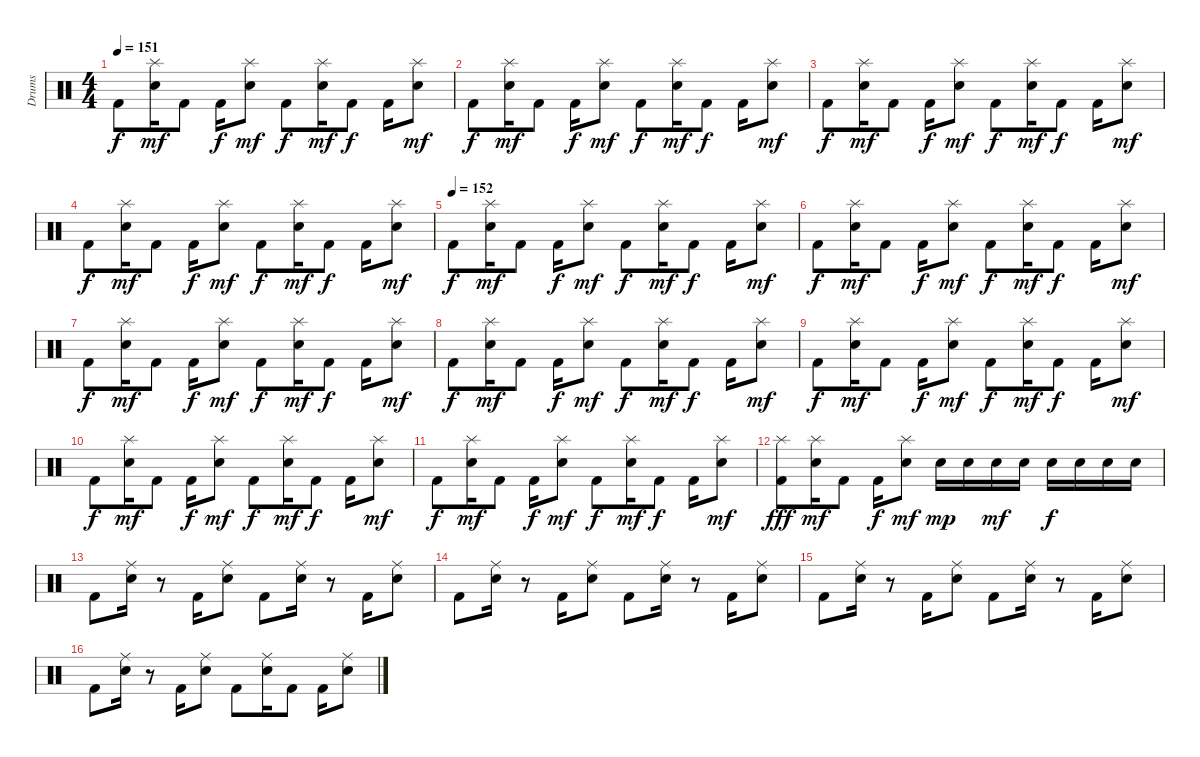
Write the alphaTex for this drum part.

\track ("Drums" "Drums") {instrument percussion}
\staff {score}
\articulation defaults
\ts (4 4)
\tempo 151
\clef neutral
\ks c "Kick (hit) 2".8{dy f}
("Splash (hit)" "Snare (hit) 2").16{dy mf} "Kick (hit) 2".8 "Kick (hit) 2".16{dy f} ("Splash (hit)" "Snare (hit) 2").8{dy mf} "Kick (hit) 2".8{dy f} ("Splash (hit)" "Snare (hit) 2").16{dy mf} "Kick (hit) 2".8{dy f} "Kick (hit) 2".16 ("Splash (hit)" "Snare (hit) 2").8{dy mf} |
"Kick (hit) 2".8{dy f} ("Splash (hit)" "Snare (hit) 2").16{dy mf} "Kick (hit) 2".8 "Kick (hit) 2".16{dy f} ("Splash (hit)" "Snare (hit) 2").8{dy mf} "Kick (hit) 2".8{dy f} ("Splash (hit)" "Snare (hit) 2").16{dy mf} "Kick (hit) 2".8{dy f} "Kick (hit) 2".16 ("Splash (hit)" "Snare (hit) 2").8{dy mf} |
"Kick (hit) 2".8{dy f} ("Splash (hit)" "Snare (hit) 2").16{dy mf} "Kick (hit) 2".8 "Kick (hit) 2".16{dy f} ("Splash (hit)" "Snare (hit) 2").8{dy mf} "Kick (hit) 2".8{dy f} ("Splash (hit)" "Snare (hit) 2").16{dy mf} "Kick (hit) 2".8{dy f} "Kick (hit) 2".16 ("Splash (hit)" "Snare (hit) 2").8{dy mf} |
"Kick (hit) 2".8{dy f} ("Splash (hit)" "Snare (hit) 2").16{dy mf} "Kick (hit) 2".8 "Kick (hit) 2".16{dy f} ("Splash (hit)" "Snare (hit) 2").8{dy mf} "Kick (hit) 2".8{dy f} ("Splash (hit)" "Snare (hit) 2").16{dy mf} "Kick (hit) 2".8{dy f} "Kick (hit) 2".16 ("Splash (hit)" "Snare (hit) 2").8{dy mf} |
\tempo (152)
"Kick (hit) 2".8{dy f} ("Splash (hit)" "Snare (hit) 2").16{dy mf} "Kick (hit) 2".8 "Kick (hit) 2".16{dy f} ("Splash (hit)" "Snare (hit) 2").8{dy mf} "Kick (hit) 2".8{dy f} ("Splash (hit)" "Snare (hit) 2").16{dy mf} "Kick (hit) 2".8{dy f} "Kick (hit) 2".16 ("Splash (hit)" "Snare (hit) 2").8{dy mf} |
"Kick (hit) 2".8{dy f} ("Splash (hit)" "Snare (hit) 2").16{dy mf} "Kick (hit) 2".8 "Kick (hit) 2".16{dy f} ("Splash (hit)" "Snare (hit) 2").8{dy mf} "Kick (hit) 2".8{dy f} ("Splash (hit)" "Snare (hit) 2").16{dy mf} "Kick (hit) 2".8{dy f} "Kick (hit) 2".16 ("Splash (hit)" "Snare (hit) 2").8{dy mf} |
"Kick (hit) 2".8{dy f} ("Splash (hit)" "Snare (hit) 2").16{dy mf} "Kick (hit) 2".8 "Kick (hit) 2".16{dy f} ("Splash (hit)" "Snare (hit) 2").8{dy mf} "Kick (hit) 2".8{dy f} ("Splash (hit)" "Snare (hit) 2").16{dy mf} "Kick (hit) 2".8{dy f} "Kick (hit) 2".16 ("Splash (hit)" "Snare (hit) 2").8{dy mf} |
"Kick (hit) 2".8{dy f} ("Splash (hit)" "Snare (hit) 2").16{dy mf} "Kick (hit) 2".8 "Kick (hit) 2".16{dy f} ("Splash (hit)" "Snare (hit) 2").8{dy mf} "Kick (hit) 2".8{dy f} ("Splash (hit)" "Snare (hit) 2").16{dy mf} "Kick (hit) 2".8{dy f} "Kick (hit) 2".16 ("Splash (hit)" "Snare (hit) 2").8{dy mf} |
"Kick (hit) 2".8{dy f} ("Splash (hit)" "Snare (hit) 2").16{dy mf} "Kick (hit) 2".8 "Kick (hit) 2".16{dy f} ("Splash (hit)" "Snare (hit) 2").8{dy mf} "Kick (hit) 2".8{dy f} ("Splash (hit)" "Snare (hit) 2").16{dy mf} "Kick (hit) 2".8{dy f} "Kick (hit) 2".16 ("Splash (hit)" "Snare (hit) 2").8{dy mf} |
"Kick (hit) 2".8{dy f} ("Splash (hit)" "Snare (hit) 2").16{dy mf} "Kick (hit) 2".8 "Kick (hit) 2".16{dy f} ("Splash (hit)" "Snare (hit) 2").8{dy mf} "Kick (hit) 2".8{dy f} ("Splash (hit)" "Snare (hit) 2").16{dy mf} "Kick (hit) 2".8{dy f} "Kick (hit) 2".16 ("Splash (hit)" "Snare (hit) 2").8{dy mf} |
"Kick (hit) 2".8{dy f} ("Splash (hit)" "Snare (hit) 2").16{dy mf} "Kick (hit) 2".8 "Kick (hit) 2".16{dy f} ("Splash (hit)" "Snare (hit) 2").8{dy mf} "Kick (hit) 2".8{dy f} ("Splash (hit)" "Snare (hit) 2").16{dy mf} "Kick (hit) 2".8{dy f} "Kick (hit) 2".16 ("Splash (hit)" "Snare (hit) 2").8{dy mf} |
("Splash (hit)" "Kick (hit) 2").8{dy fff} ("Splash (hit)" "Snare (hit) 2").16{dy mf} "Kick (hit) 2".8 "Kick (hit) 2".16{dy f} ("Splash (hit)" "Snare (hit) 2").8{dy mf} "Snare (hit) 2".16{dy mp} "Snare (hit) 2".16 "Snare (hit) 2".16{dy mf} "Snare (hit) 2".16 "Snare (hit) 2".16{dy f} "Snare (hit) 2".16 "Snare (hit) 2".16 "Snare (hit) 2".16 |
"Kick (hit) 2".8 ("Ride (middle)" "Snare (hit) 2").16 r.8 "Kick (hit) 2".16 ("Ride (middle)" "Snare (hit) 2").8 "Kick (hit) 2".8 ("Ride (middle)" "Snare (hit) 2").16 r.8 "Kick (hit) 2".16 ("Ride (middle)" "Snare (hit) 2").8 |
"Kick (hit) 2".8 ("Ride (middle)" "Snare (hit) 2").16 r.8 "Kick (hit) 2".16 ("Ride (middle)" "Snare (hit) 2").8 "Kick (hit) 2".8 ("Ride (middle)" "Snare (hit) 2").16 r.8 "Kick (hit) 2".16 ("Ride (middle)" "Snare (hit) 2").8 |
"Kick (hit) 2".8 ("Ride (middle)" "Snare (hit) 2").16 r.8 "Kick (hit) 2".16 ("Ride (middle)" "Snare (hit) 2").8 "Kick (hit) 2".8 ("Ride (middle)" "Snare (hit) 2").16 r.8 "Kick (hit) 2".16 ("Ride (middle)" "Snare (hit) 2").8 |
"Kick (hit) 2".8 ("Ride (middle)" "Snare (hit) 2").16 r.8 "Kick (hit) 2".16 ("Ride (middle)" "Snare (hit) 2").8 "Kick (hit) 2".8 ("Ride (middle)" "Snare (hit) 2").16 "Kick (hit) 2".8 "Kick (hit) 2".16 ("Ride (middle)" "Snare (hit) 2").8
